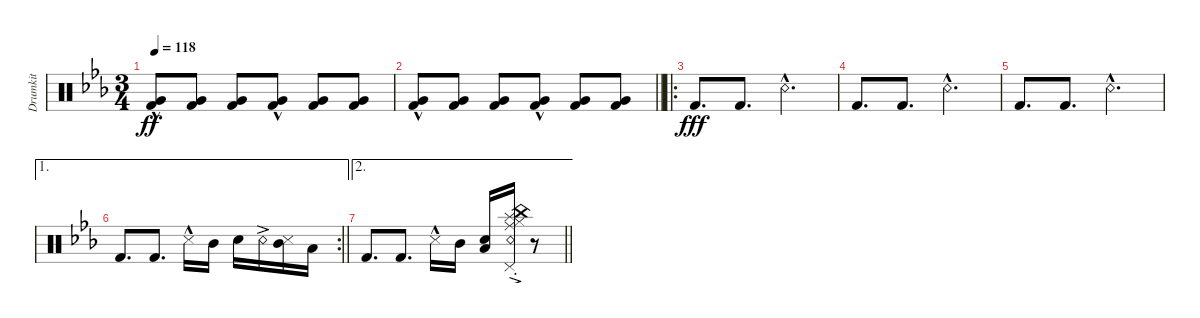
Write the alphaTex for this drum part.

\track ("Drumkit" "Drumkit") {instrument percussion}
\staff {score}
\articulation defaults
\ts (3 4)
\tempo 118
\clef neutral
\ks cminor
("Kick (hit) 2"{hac} "Very Low Tom (hit)").8{dy ff} ("Kick (hit) 2" "Very Low Tom (hit)").8 ("Kick (hit) 2" "Very Low Tom (hit)").8 ("Kick (hit) 2"{hac} "Very Low Tom (hit)").8 ("Kick (hit) 2" "Very Low Tom (hit)").8 ("Kick (hit) 2" "Very Low Tom (hit)").8 |
\barLineRight lightlight
("Kick (hit) 2"{hac} "Very Low Tom (hit)").8 ("Kick (hit) 2" "Very Low Tom (hit)").8 ("Kick (hit) 2" "Very Low Tom (hit)").8 ("Kick (hit) 2"{hac} "Very Low Tom (hit)").8 ("Kick (hit) 2" "Very Low Tom (hit)").8 ("Kick (hit) 2" "Very Low Tom (hit)").8 |
\ro "Kick (hit) 2".8{d dy fff} "Kick (hit) 2".8{d} "Snare (rim shot)"{hac}.4{d}
|
"Kick (hit) 2".8{d} "Kick (hit) 2".8{d} "Snare (rim shot)"{hac}.4{d} |
"Kick (hit) 2".8{d} "Kick (hit) 2".8{d} "Snare (rim shot)"{hac}.4{d} |
\ae 1
\rc 2
\barLineRight lightlight "Kick (hit) 2".8{d} "Kick (hit) 2".8{d} "Snare (side stick) 3"{hac}.16 "Mid Tom (hit)".16 "Snare (hit) 2".16 "Snare (rim shot)"{ac}.16
("Snare (side stick) 3" "Mid Tom (hit)").16 "Low Tom (hit)".16 |
\ae 2
\barLineRight lightlight "Kick (hit) 2".8{d} "Kick (hit) 2".8{d} "Snare (side stick) 3"{hac}.16 "Mid Tom (hit)".16
("Snare (hit) 2" "Low Tom (hit)").16 ("Snare (rim shot)"{ac st} "Ride (middle)"{ac st} "Hi-Hat (closed)"{ac st} "Splash (hit)"{ac st} "China (hit)"{ac st} "Pedal Hi-Hat (hit)"{ac st}).16 r.8
